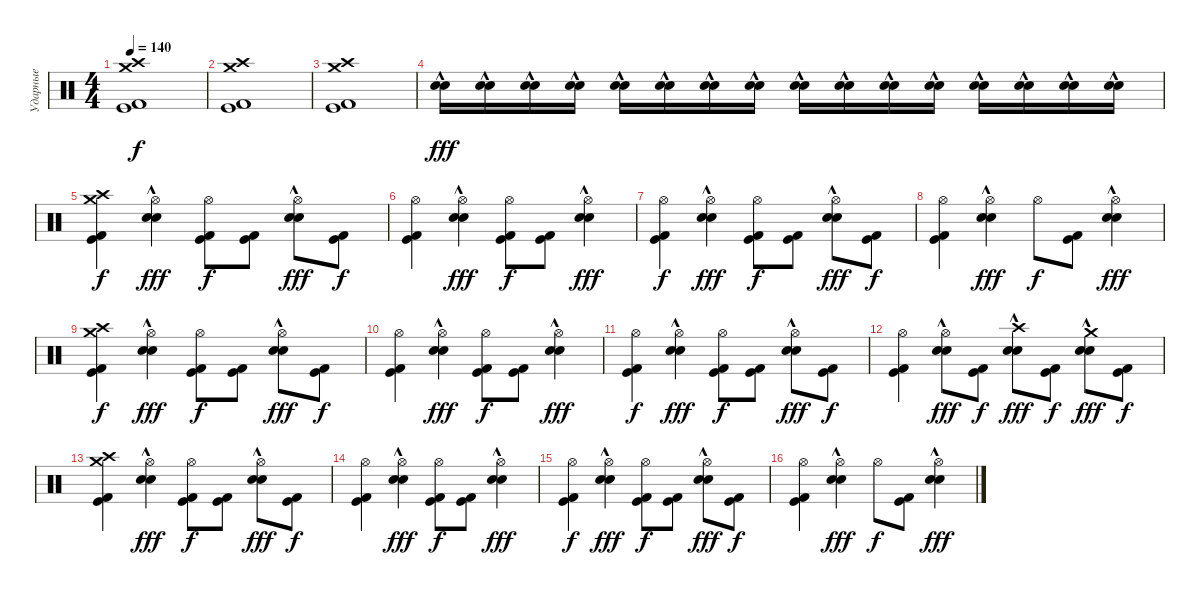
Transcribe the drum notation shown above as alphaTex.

\track ("Ударные" "Ударные") {instrument percussion}
\staff {score}
\articulation defaults
\ts (4 4)
\tempo 140
\clef neutral
\ks c
("Crash high (hit)" "Kick (hit)" "Kick (hit) 2" "Crash medium (hit)").1{dy f} |
("Crash high (hit)" "Kick (hit)" "Kick (hit) 2" "Crash medium (hit)").1 |
("Crash high (hit)" "Kick (hit)" "Kick (hit) 2" "Crash medium (hit)").1 |
("Snare (hit) 2"{hac} "Electric Snare (hit)"{hac}).16{dy fff} ("Snare (hit) 2"{hac} "Electric Snare (hit)"{hac}).16 ("Snare (hit) 2"{hac} "Electric Snare (hit)"{hac}).16 ("Snare (hit) 2"{hac} "Electric Snare (hit)"{hac}).16 ("Snare (hit) 2"{hac} "Electric Snare (hit)"{hac}).16 ("Snare (hit) 2"{hac} "Electric Snare (hit)"{hac}).16 ("Snare (hit) 2"{hac} "Electric Snare (hit)"{hac}).16 ("Snare (hit) 2"{hac} "Electric Snare (hit)"{hac}).16 ("Snare (hit) 2"{hac} "Electric Snare (hit)"{hac}).16 ("Snare (hit) 2"{hac} "Electric Snare (hit)"{hac}).16 ("Snare (hit) 2"{hac} "Electric Snare (hit)"{hac}).16 ("Snare (hit) 2"{hac} "Electric Snare (hit)"{hac}).16 ("Snare (hit) 2"{hac} "Electric Snare (hit)"{hac}).16 ("Snare (hit) 2"{hac} "Electric Snare (hit)"{hac}).16 ("Snare (hit) 2"{hac} "Electric Snare (hit)"{hac}).16 ("Snare (hit) 2"{hac} "Electric Snare (hit)"{hac}).16 |
("Crash high (hit)" "Kick (hit)" "Kick (hit) 2" "Crash medium (hit)").4{dy f} ("Hi-Hat (open)" "Snare (hit) 2"{hac} "Electric Snare (hit)"{hac}).4{dy fff} ("Hi-Hat (open)" "Kick (hit)" "Kick (hit) 2").8{dy f} ("Kick (hit)" "Kick (hit) 2").8 ("Hi-Hat (open)" "Snare (hit) 2"{hac} "Electric Snare (hit)"{hac}).8{dy fff} ("Kick (hit)" "Kick (hit) 2").8{dy f} |
("Hi-Hat (open)" "Kick (hit)" "Kick (hit) 2").4 ("Hi-Hat (open)" "Snare (hit) 2"{hac} "Electric Snare (hit)"{hac}).4{dy fff} ("Hi-Hat (open)" "Kick (hit)" "Kick (hit) 2").8{dy f} ("Kick (hit)" "Kick (hit) 2").8 ("Hi-Hat (open)" "Snare (hit) 2"{hac} "Electric Snare (hit)"{hac}).4{dy fff} |
("Hi-Hat (open)" "Kick (hit)" "Kick (hit) 2").4{dy f} ("Hi-Hat (open)" "Snare (hit) 2"{hac} "Electric Snare (hit)"{hac}).4{dy fff} ("Hi-Hat (open)" "Kick (hit)" "Kick (hit) 2").8{dy f} ("Kick (hit)" "Kick (hit) 2").8 ("Hi-Hat (open)" "Snare (hit) 2"{hac} "Electric Snare (hit)"{hac}).8{dy fff} ("Kick (hit)" "Kick (hit) 2").8{dy f} |
("Hi-Hat (open)" "Kick (hit)" "Kick (hit) 2").4 ("Hi-Hat (open)" "Snare (hit) 2"{hac} "Electric Snare (hit)"{hac}).4{dy fff} "Hi-Hat (open)".8{dy f} ("Kick (hit)" "Kick (hit) 2").8 ("Hi-Hat (open)" "Snare (hit) 2"{hac} "Electric Snare (hit)"{hac}).4{dy fff} |
("Crash high (hit)" "Kick (hit)" "Kick (hit) 2" "Crash medium (hit)").4{dy f} ("Hi-Hat (open)" "Snare (hit) 2"{hac} "Electric Snare (hit)"{hac}).4{dy fff} ("Hi-Hat (open)" "Kick (hit)" "Kick (hit) 2").8{dy f} ("Kick (hit)" "Kick (hit) 2").8 ("Hi-Hat (open)" "Snare (hit) 2"{hac} "Electric Snare (hit)"{hac}).8{dy fff} ("Kick (hit)" "Kick (hit) 2").8{dy f} |
("Hi-Hat (open)" "Kick (hit)" "Kick (hit) 2").4 ("Hi-Hat (open)" "Snare (hit) 2"{hac} "Electric Snare (hit)"{hac}).4{dy fff} ("Hi-Hat (open)" "Kick (hit)" "Kick (hit) 2").8{dy f} ("Kick (hit)" "Kick (hit) 2").8 ("Hi-Hat (open)" "Snare (hit) 2"{hac} "Electric Snare (hit)"{hac}).4{dy fff} |
("Hi-Hat (open)" "Kick (hit)" "Kick (hit) 2").4{dy f} ("Hi-Hat (open)" "Snare (hit) 2"{hac} "Electric Snare (hit)"{hac}).4{dy fff} ("Hi-Hat (open)" "Kick (hit)" "Kick (hit) 2").8{dy f} ("Kick (hit)" "Kick (hit) 2").8 ("Hi-Hat (open)" "Snare (hit) 2"{hac} "Electric Snare (hit)"{hac}).8{dy fff} ("Kick (hit)" "Kick (hit) 2").8{dy f} |
("Hi-Hat (open)" "Kick (hit)" "Kick (hit) 2").4 ("Hi-Hat (open)" "Snare (hit) 2"{hac} "Electric Snare (hit)"{hac}).8{dy fff} ("Kick (hit)" "Kick (hit) 2").8{dy f} ("Crash high (hit)" "Snare (hit) 2"{hac} "Electric Snare (hit)"{hac}).8{dy fff} ("Kick (hit)" "Kick (hit) 2").8{dy f} ("Crash medium (hit)" "Snare (hit) 2"{hac} "Electric Snare (hit)"{hac}).8{dy fff} ("Kick (hit)" "Kick (hit) 2").8{dy f} |
("Crash high (hit)" "Kick (hit)" "Kick (hit) 2" "Crash medium (hit)").4 ("Hi-Hat (open)" "Snare (hit) 2"{hac} "Electric Snare (hit)"{hac}).4{dy fff} ("Hi-Hat (open)" "Kick (hit)" "Kick (hit) 2").8{dy f} ("Kick (hit)" "Kick (hit) 2").8 ("Hi-Hat (open)" "Snare (hit) 2"{hac} "Electric Snare (hit)"{hac}).8{dy fff} ("Kick (hit)" "Kick (hit) 2").8{dy f} |
("Hi-Hat (open)" "Kick (hit)" "Kick (hit) 2").4 ("Hi-Hat (open)" "Snare (hit) 2"{hac} "Electric Snare (hit)"{hac}).4{dy fff} ("Hi-Hat (open)" "Kick (hit)" "Kick (hit) 2").8{dy f} ("Kick (hit)" "Kick (hit) 2").8 ("Hi-Hat (open)" "Snare (hit) 2"{hac} "Electric Snare (hit)"{hac}).4{dy fff} |
("Hi-Hat (open)" "Kick (hit)" "Kick (hit) 2").4{dy f} ("Hi-Hat (open)" "Snare (hit) 2"{hac} "Electric Snare (hit)"{hac}).4{dy fff} ("Hi-Hat (open)" "Kick (hit)" "Kick (hit) 2").8{dy f} ("Kick (hit)" "Kick (hit) 2").8 ("Hi-Hat (open)" "Snare (hit) 2"{hac} "Electric Snare (hit)"{hac}).8{dy fff} ("Kick (hit)" "Kick (hit) 2").8{dy f} |
("Hi-Hat (open)" "Kick (hit)" "Kick (hit) 2").4 ("Hi-Hat (open)" "Snare (hit) 2"{hac} "Electric Snare (hit)"{hac}).4{dy fff} "Hi-Hat (open)".8{dy f} ("Kick (hit)" "Kick (hit) 2").8 ("Hi-Hat (open)" "Snare (hit) 2"{hac} "Electric Snare (hit)"{hac}).4{dy fff}
